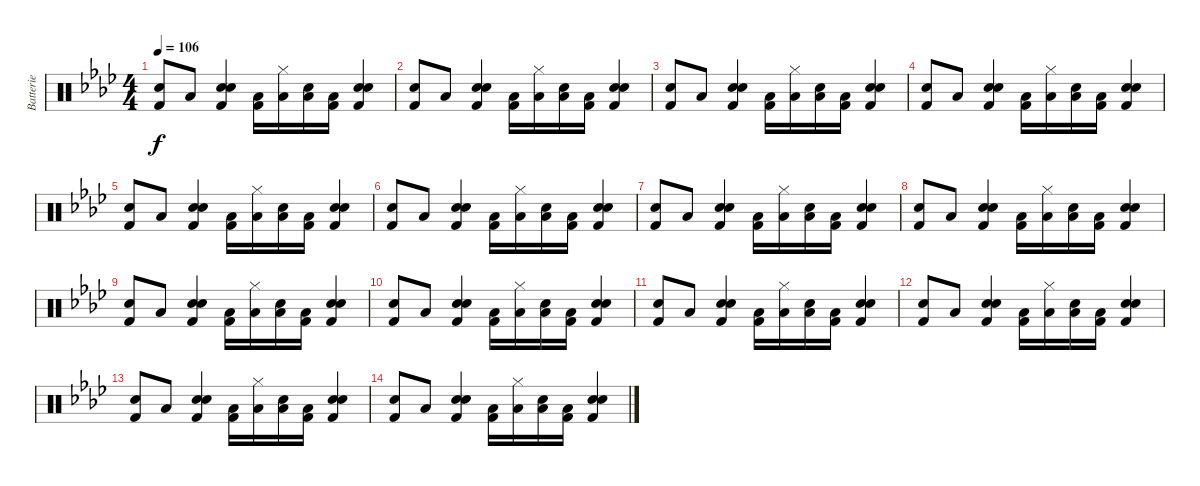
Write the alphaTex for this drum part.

\track ("Batterie" "Batterie") {instrument percussion}
\staff {score}
\articulation defaults
\ts (4 4)
\tempo 106
\clef neutral
\ks ab
("Kick (hit) 2" "Electric Snare (hit)").8{dy f} "Low Floor Tom (hit)".8 ("Snare (hit) 2" "Kick (hit) 2" "Electric Snare (hit)").4 ("Kick (hit) 2" "Low Floor Tom (hit)").16 ("Low Floor Tom (hit)" "Hi-Hat (closed)").16 ("Low Floor Tom (hit)" "Electric Snare (hit)").16 ("Kick (hit) 2" "Low Floor Tom (hit)").16 ("Snare (hit) 2" "Kick (hit) 2" "Electric Snare (hit)").4 |
("Kick (hit) 2" "Electric Snare (hit)").8 "Low Floor Tom (hit)".8 ("Snare (hit) 2" "Kick (hit) 2" "Electric Snare (hit)").4 ("Kick (hit) 2" "Low Floor Tom (hit)").16 ("Low Floor Tom (hit)" "Hi-Hat (closed)").16 ("Low Floor Tom (hit)" "Electric Snare (hit)").16 ("Kick (hit) 2" "Low Floor Tom (hit)").16 ("Snare (hit) 2" "Kick (hit) 2" "Electric Snare (hit)").4 |
("Kick (hit) 2" "Electric Snare (hit)").8 "Low Floor Tom (hit)".8 ("Snare (hit) 2" "Kick (hit) 2" "Electric Snare (hit)").4 ("Kick (hit) 2" "Low Floor Tom (hit)").16 ("Low Floor Tom (hit)" "Hi-Hat (closed)").16 ("Low Floor Tom (hit)" "Electric Snare (hit)").16 ("Kick (hit) 2" "Low Floor Tom (hit)").16 ("Snare (hit) 2" "Kick (hit) 2" "Electric Snare (hit)").4 |
("Kick (hit) 2" "Electric Snare (hit)").8 "Low Floor Tom (hit)".8 ("Snare (hit) 2" "Kick (hit) 2" "Electric Snare (hit)").4 ("Kick (hit) 2" "Low Floor Tom (hit)").16 ("Low Floor Tom (hit)" "Hi-Hat (closed)").16 ("Low Floor Tom (hit)" "Electric Snare (hit)").16 ("Kick (hit) 2" "Low Floor Tom (hit)").16 ("Snare (hit) 2" "Kick (hit) 2" "Electric Snare (hit)").4 |
("Kick (hit) 2" "Electric Snare (hit)").8 "Low Floor Tom (hit)".8 ("Snare (hit) 2" "Kick (hit) 2" "Electric Snare (hit)").4 ("Kick (hit) 2" "Low Floor Tom (hit)").16 ("Low Floor Tom (hit)" "Hi-Hat (closed)").16 ("Low Floor Tom (hit)" "Electric Snare (hit)").16 ("Kick (hit) 2" "Low Floor Tom (hit)").16 ("Snare (hit) 2" "Kick (hit) 2" "Electric Snare (hit)").4 |
("Kick (hit) 2" "Electric Snare (hit)").8 "Low Floor Tom (hit)".8 ("Snare (hit) 2" "Kick (hit) 2" "Electric Snare (hit)").4 ("Kick (hit) 2" "Low Floor Tom (hit)").16 ("Low Floor Tom (hit)" "Hi-Hat (closed)").16 ("Low Floor Tom (hit)" "Electric Snare (hit)").16 ("Kick (hit) 2" "Low Floor Tom (hit)").16 ("Snare (hit) 2" "Kick (hit) 2" "Electric Snare (hit)").4 |
("Kick (hit) 2" "Electric Snare (hit)").8 "Low Floor Tom (hit)".8 ("Snare (hit) 2" "Kick (hit) 2" "Electric Snare (hit)").4 ("Kick (hit) 2" "Low Floor Tom (hit)").16 ("Low Floor Tom (hit)" "Hi-Hat (closed)").16 ("Low Floor Tom (hit)" "Electric Snare (hit)").16 ("Kick (hit) 2" "Low Floor Tom (hit)").16 ("Snare (hit) 2" "Kick (hit) 2" "Electric Snare (hit)").4 |
("Kick (hit) 2" "Electric Snare (hit)").8 "Low Floor Tom (hit)".8 ("Snare (hit) 2" "Kick (hit) 2" "Electric Snare (hit)").4 ("Kick (hit) 2" "Low Floor Tom (hit)").16 ("Low Floor Tom (hit)" "Hi-Hat (closed)").16 ("Low Floor Tom (hit)" "Electric Snare (hit)").16 ("Kick (hit) 2" "Low Floor Tom (hit)").16 ("Snare (hit) 2" "Kick (hit) 2" "Electric Snare (hit)").4 |
("Kick (hit) 2" "Electric Snare (hit)").8 "Low Floor Tom (hit)".8 ("Snare (hit) 2" "Kick (hit) 2" "Electric Snare (hit)").4 ("Kick (hit) 2" "Low Floor Tom (hit)").16 ("Low Floor Tom (hit)" "Hi-Hat (closed)").16 ("Low Floor Tom (hit)" "Electric Snare (hit)").16 ("Kick (hit) 2" "Low Floor Tom (hit)").16 ("Snare (hit) 2" "Kick (hit) 2" "Electric Snare (hit)").4 |
("Kick (hit) 2" "Electric Snare (hit)").8 "Low Floor Tom (hit)".8 ("Snare (hit) 2" "Kick (hit) 2" "Electric Snare (hit)").4 ("Kick (hit) 2" "Low Floor Tom (hit)").16 ("Low Floor Tom (hit)" "Hi-Hat (closed)").16 ("Low Floor Tom (hit)" "Electric Snare (hit)").16 ("Kick (hit) 2" "Low Floor Tom (hit)").16 ("Snare (hit) 2" "Kick (hit) 2" "Electric Snare (hit)").4 |
("Kick (hit) 2" "Electric Snare (hit)").8 "Low Floor Tom (hit)".8 ("Snare (hit) 2" "Kick (hit) 2" "Electric Snare (hit)").4 ("Kick (hit) 2" "Low Floor Tom (hit)").16 ("Low Floor Tom (hit)" "Hi-Hat (closed)").16 ("Low Floor Tom (hit)" "Electric Snare (hit)").16 ("Kick (hit) 2" "Low Floor Tom (hit)").16 ("Snare (hit) 2" "Kick (hit) 2" "Electric Snare (hit)").4 |
("Kick (hit) 2" "Electric Snare (hit)").8 "Low Floor Tom (hit)".8 ("Snare (hit) 2" "Kick (hit) 2" "Electric Snare (hit)").4 ("Kick (hit) 2" "Low Floor Tom (hit)").16 ("Low Floor Tom (hit)" "Hi-Hat (closed)").16 ("Low Floor Tom (hit)" "Electric Snare (hit)").16 ("Kick (hit) 2" "Low Floor Tom (hit)").16 ("Snare (hit) 2" "Kick (hit) 2" "Electric Snare (hit)").4 |
("Kick (hit) 2" "Electric Snare (hit)").8 "Low Floor Tom (hit)".8 ("Snare (hit) 2" "Kick (hit) 2" "Electric Snare (hit)").4 ("Kick (hit) 2" "Low Floor Tom (hit)").16 ("Low Floor Tom (hit)" "Hi-Hat (closed)").16 ("Low Floor Tom (hit)" "Electric Snare (hit)").16 ("Kick (hit) 2" "Low Floor Tom (hit)").16 ("Snare (hit) 2" "Kick (hit) 2" "Electric Snare (hit)").4 |
("Kick (hit) 2" "Electric Snare (hit)").8 "Low Floor Tom (hit)".8 ("Snare (hit) 2" "Kick (hit) 2" "Electric Snare (hit)").4 ("Kick (hit) 2" "Low Floor Tom (hit)").16 ("Low Floor Tom (hit)" "Hi-Hat (closed)").16 ("Low Floor Tom (hit)" "Electric Snare (hit)").16 ("Kick (hit) 2" "Low Floor Tom (hit)").16 ("Snare (hit) 2" "Kick (hit) 2" "Electric Snare (hit)").4
